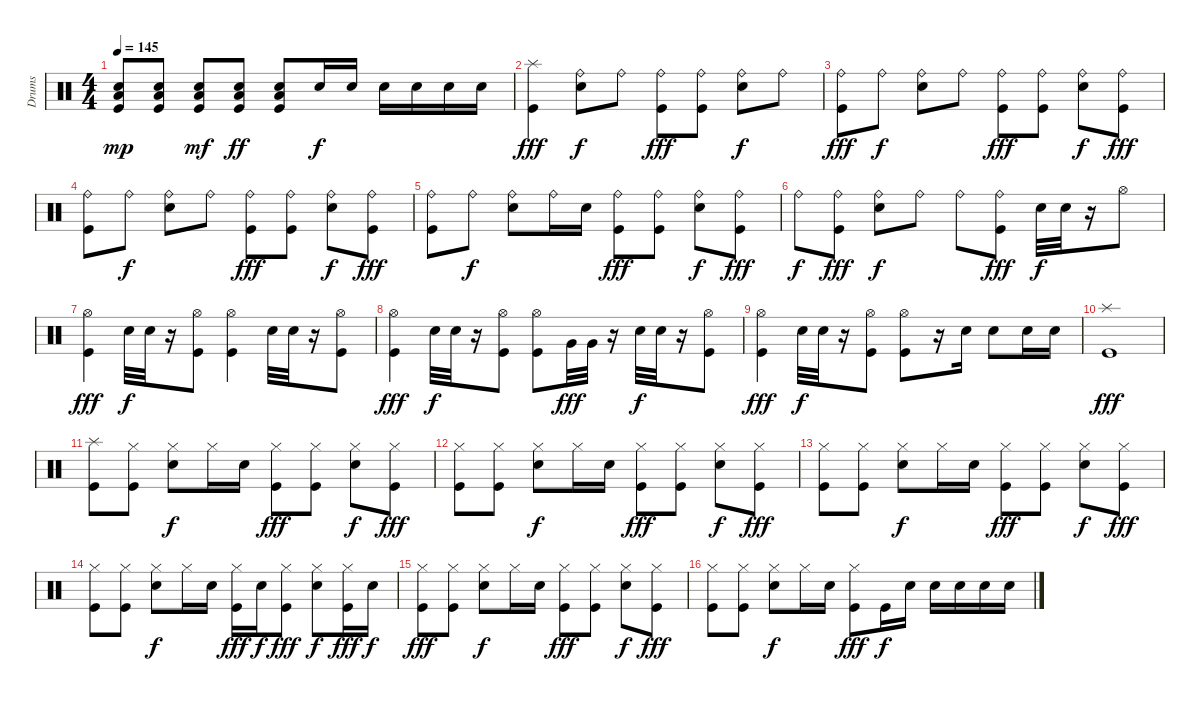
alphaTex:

\track ("Drums" "Drums") {instrument percussion}
\staff {score}
\articulation defaults
\ts (4 4)
\tempo 145
\clef neutral
\ks c
("Snare (hit) 2" "Low Tom (hit)" "Kick (hit)").8{dy mp} ("Snare (hit) 2" "Low Tom (hit)" "Kick (hit)").8 ("Snare (hit) 2" "Low Tom (hit)" "Kick (hit)").8{dy mf} ("Snare (hit) 2" "Low Tom (hit)" "Kick (hit)").8{dy ff} ("Snare (hit) 2" "Low Tom (hit)" "Kick (hit)").8 "Snare (hit) 2".16{dy f} "Snare (hit) 2".16 "Snare (hit) 2".16 "Snare (hit) 2".16 "Snare (hit) 2".16 "Snare (hit) 2".16 |
("Splash (hit)" "Kick (hit)").4{dy fff} ("Ride (bell)" "Snare (hit) 2").8{dy f} "Ride (bell)".8 ("Ride (bell)" "Kick (hit)").8{dy fff} ("Ride (bell)" "Kick (hit)").8 ("Ride (bell)" "Snare (hit) 2").8{dy f} "Ride (bell)".8 |
("Ride (bell)" "Kick (hit)").8{dy fff} "Ride (bell)".8{dy f} ("Ride (bell)" "Snare (hit) 2").8 "Ride (bell)".8 ("Ride (bell)" "Kick (hit)").8{dy fff} ("Ride (bell)" "Kick (hit)").8 ("Ride (bell)" "Snare (hit) 2").8{dy f} ("Ride (bell)" "Kick (hit)").8{dy fff} |
("Ride (bell)" "Kick (hit)").8 "Ride (bell)".8{dy f} ("Ride (bell)" "Snare (hit) 2").8 "Ride (bell)".8 ("Ride (bell)" "Kick (hit)").8{dy fff} ("Ride (bell)" "Kick (hit)").8 ("Ride (bell)" "Snare (hit) 2").8{dy f} ("Ride (bell)" "Kick (hit)").8{dy fff} |
("Ride (bell)" "Kick (hit)").8 "Ride (bell)".8{dy f} ("Ride (bell)" "Snare (hit) 2").8 "Ride (bell)".16 "Snare (hit) 2".16 ("Ride (bell)" "Kick (hit)").8{dy fff} ("Ride (bell)" "Kick (hit)").8 ("Ride (bell)" "Snare (hit) 2").8{dy f} ("Ride (bell)" "Kick (hit)").8{dy fff} |
"Ride (bell)".8{dy f} ("Ride (bell)" "Kick (hit)").8{dy fff} ("Ride (bell)" "Snare (hit) 2").8{dy f} "Ride (bell)".8 "Ride (bell)".8 ("Ride (bell)" "Kick (hit)").8{dy fff} "Snare (hit) 2".32{dy f} "Snare (hit) 2".32 r.16 "Hi-Hat (open)".8 |
("Hi-Hat (open)" "Kick (hit)").4{dy fff} "Snare (hit) 2".32{dy f} "Snare (hit) 2".32 r.16 ("Hi-Hat (open)" "Kick (hit)").8 ("Hi-Hat (open)" "Kick (hit)").4 "Snare (hit) 2".32 "Snare (hit) 2".32 r.16 ("Hi-Hat (open)" "Kick (hit)").8 |
("Hi-Hat (open)" "Kick (hit)").4{dy fff} "Snare (hit) 2".32{dy f} "Snare (hit) 2".32 r.16 ("Hi-Hat (open)" "Kick (hit)").8 ("Hi-Hat (open)" "Kick (hit)").8 "Very Low Tom (hit)".32{dy fff} "Very Low Tom (hit)".32 r.16 "Snare (hit) 2".32{dy f} "Snare (hit) 2".32 r.16 ("Hi-Hat (open)" "Kick (hit)").8 |
("Hi-Hat (open)" "Kick (hit)").4{dy fff} "Snare (hit) 2".32{dy f} "Snare (hit) 2".32 r.16 ("Hi-Hat (open)" "Kick (hit)").8 ("Hi-Hat (open)" "Kick (hit)").8 r.16 "Snare (hit) 2".16 "Snare (hit) 2".8 "Snare (hit) 2".16 "Snare (hit) 2".16 |
("Splash (hit)" "Kick (hit)").1{dy fff} |
("Splash (hit)" "Kick (hit)").8 ("Hi-Hat (closed)" "Kick (hit)").8 ("Hi-Hat (closed)" "Snare (hit) 2").8{dy f} "Hi-Hat (closed)".16 "Snare (hit) 2".16 ("Hi-Hat (closed)" "Kick (hit)").8{dy fff} ("Hi-Hat (closed)" "Kick (hit)").8 ("Hi-Hat (closed)" "Snare (hit) 2").8{dy f} ("Hi-Hat (closed)" "Kick (hit)").8{dy fff} |
("Hi-Hat (closed)" "Kick (hit)").8 ("Hi-Hat (closed)" "Kick (hit)").8 ("Hi-Hat (closed)" "Snare (hit) 2").8{dy f} "Hi-Hat (closed)".16 "Snare (hit) 2".16 ("Hi-Hat (closed)" "Kick (hit)").8{dy fff} ("Hi-Hat (closed)" "Kick (hit)").8 ("Hi-Hat (closed)" "Snare (hit) 2").8{dy f} ("Hi-Hat (closed)" "Kick (hit)").8{dy fff} |
("Hi-Hat (closed)" "Kick (hit)").8 ("Hi-Hat (closed)" "Kick (hit)").8 ("Hi-Hat (closed)" "Snare (hit) 2").8{dy f} "Hi-Hat (closed)".16 "Snare (hit) 2".16 ("Hi-Hat (closed)" "Kick (hit)").8{dy fff} ("Hi-Hat (closed)" "Kick (hit)").8 ("Hi-Hat (closed)" "Snare (hit) 2").8{dy f} ("Hi-Hat (closed)" "Kick (hit)").8{dy fff} |
("Hi-Hat (closed)" "Kick (hit)").8 ("Hi-Hat (closed)" "Kick (hit)").8 ("Hi-Hat (closed)" "Snare (hit) 2").8{dy f} "Hi-Hat (closed)".16 "Snare (hit) 2".16 ("Hi-Hat (closed)" "Kick (hit)").16{dy fff} "Snare (hit) 2".16{dy f} ("Hi-Hat (closed)" "Kick (hit)").8{dy fff} ("Hi-Hat (closed)" "Snare (hit) 2").8{dy f} ("Hi-Hat (closed)" "Kick (hit)").16{dy fff} "Snare (hit) 2".16{dy f} |
("Hi-Hat (closed)" "Kick (hit)").8{dy fff} ("Hi-Hat (closed)" "Kick (hit)").8 ("Hi-Hat (closed)" "Snare (hit) 2").8{dy f} "Hi-Hat (closed)".16 "Snare (hit) 2".16 ("Hi-Hat (closed)" "Kick (hit)").8{dy fff} ("Hi-Hat (closed)" "Kick (hit)").8 ("Hi-Hat (closed)" "Snare (hit) 2").8{dy f} ("Hi-Hat (closed)" "Kick (hit)").8{dy fff} |
("Hi-Hat (closed)" "Kick (hit)").8 ("Hi-Hat (closed)" "Kick (hit)").8 ("Hi-Hat (closed)" "Snare (hit) 2").8{dy f} "Hi-Hat (closed)".16 "Snare (hit) 2".16 ("Hi-Hat (closed)" "Kick (hit)").8{dy fff} "Kick (hit)".16{dy f} "Snare (hit) 2".16 "Snare (hit) 2".16 "Snare (hit) 2".16 "Snare (hit) 2".16 "Snare (hit) 2".16
